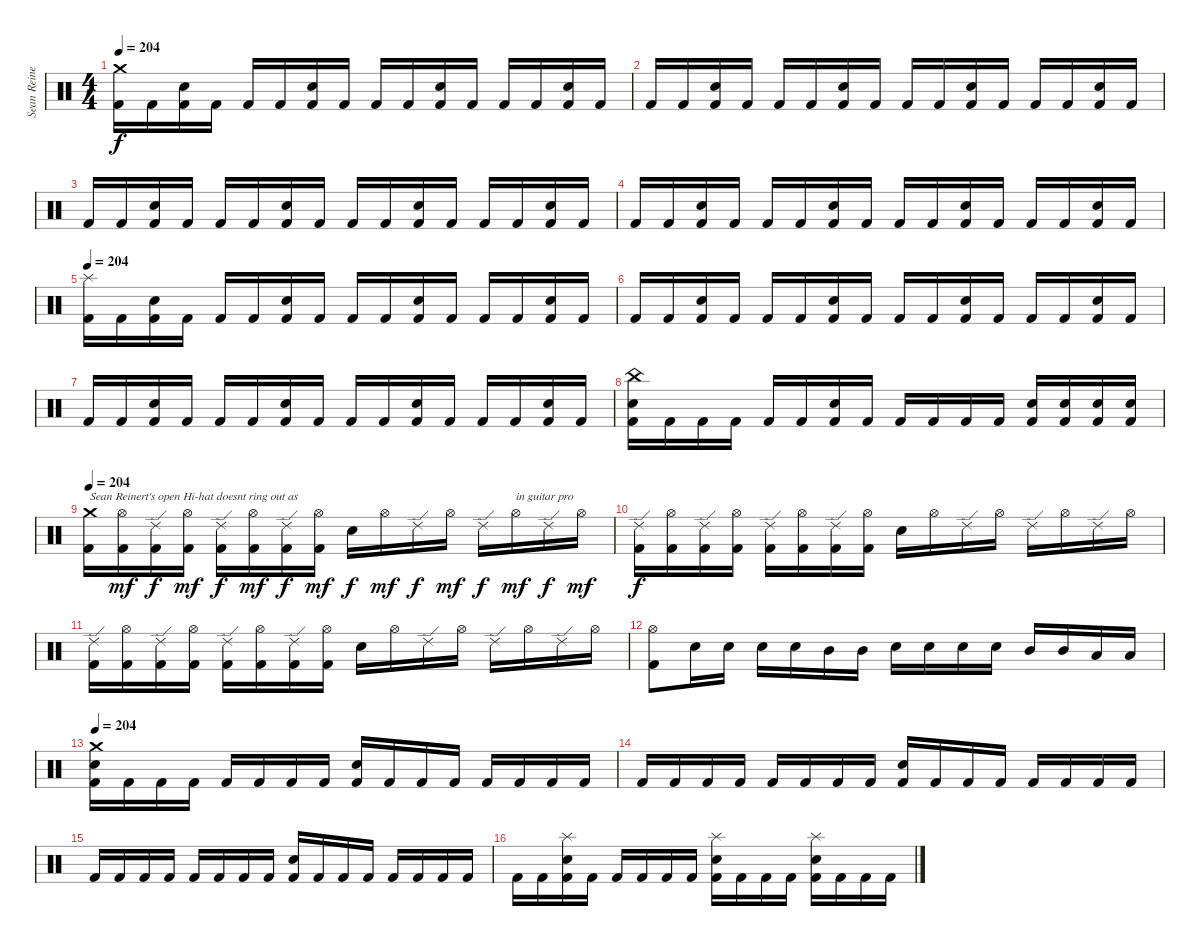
\track ("Sean Reinert" "Sean Reine") {instrument percussion}
\staff {score}
\articulation defaults
\ts (4 4)
\tempo 204
\clef neutral
\ks c
("Crash medium (hit)" "Kick (hit) 2").16{dy f} "Kick (hit) 2".16 ("Snare (hit) 2" "Kick (hit) 2").16 "Kick (hit) 2".16 "Kick (hit) 2".16 "Kick (hit) 2".16 ("Snare (hit) 2" "Kick (hit) 2").16 "Kick (hit) 2".16 "Kick (hit) 2".16 "Kick (hit) 2".16 ("Snare (hit) 2" "Kick (hit) 2").16 "Kick (hit) 2".16 "Kick (hit) 2".16 "Kick (hit) 2".16 ("Snare (hit) 2" "Kick (hit) 2").16 "Kick (hit) 2".16 |
"Kick (hit) 2".16 "Kick (hit) 2".16 ("Snare (hit) 2" "Kick (hit) 2").16 "Kick (hit) 2".16 "Kick (hit) 2".16 "Kick (hit) 2".16 ("Snare (hit) 2" "Kick (hit) 2").16 "Kick (hit) 2".16 "Kick (hit) 2".16 "Kick (hit) 2".16 ("Snare (hit) 2" "Kick (hit) 2").16 "Kick (hit) 2".16 "Kick (hit) 2".16 "Kick (hit) 2".16 ("Snare (hit) 2" "Kick (hit) 2").16 "Kick (hit) 2".16 |
"Kick (hit) 2".16 "Kick (hit) 2".16 ("Snare (hit) 2" "Kick (hit) 2").16 "Kick (hit) 2".16 "Kick (hit) 2".16 "Kick (hit) 2".16 ("Snare (hit) 2" "Kick (hit) 2").16 "Kick (hit) 2".16 "Kick (hit) 2".16 "Kick (hit) 2".16 ("Snare (hit) 2" "Kick (hit) 2").16 "Kick (hit) 2".16 "Kick (hit) 2".16 "Kick (hit) 2".16 ("Snare (hit) 2" "Kick (hit) 2").16 "Kick (hit) 2".16 |
"Kick (hit) 2".16 "Kick (hit) 2".16 ("Snare (hit) 2" "Kick (hit) 2").16 "Kick (hit) 2".16 "Kick (hit) 2".16 "Kick (hit) 2".16 ("Snare (hit) 2" "Kick (hit) 2").16 "Kick (hit) 2".16 "Kick (hit) 2".16 "Kick (hit) 2".16 ("Snare (hit) 2" "Kick (hit) 2").16 "Kick (hit) 2".16 "Kick (hit) 2".16 "Kick (hit) 2".16 ("Snare (hit) 2" "Kick (hit) 2").16 "Kick (hit) 2".16 |
\tempo 204
("Splash (hit)" "Kick (hit) 2").16 "Kick (hit) 2".16 ("Snare (hit) 2" "Kick (hit) 2").16 "Kick (hit) 2".16 "Kick (hit) 2".16 "Kick (hit) 2".16 ("Snare (hit) 2" "Kick (hit) 2").16 "Kick (hit) 2".16 "Kick (hit) 2".16 "Kick (hit) 2".16 ("Snare (hit) 2" "Kick (hit) 2").16 "Kick (hit) 2".16 "Kick (hit) 2".16 "Kick (hit) 2".16 ("Snare (hit) 2" "Kick (hit) 2").16 "Kick (hit) 2".16 |
"Kick (hit) 2".16 "Kick (hit) 2".16 ("Snare (hit) 2" "Kick (hit) 2").16 "Kick (hit) 2".16 "Kick (hit) 2".16 "Kick (hit) 2".16 ("Snare (hit) 2" "Kick (hit) 2").16 "Kick (hit) 2".16 "Kick (hit) 2".16 "Kick (hit) 2".16 ("Snare (hit) 2" "Kick (hit) 2").16 "Kick (hit) 2".16 "Kick (hit) 2".16 "Kick (hit) 2".16 ("Snare (hit) 2" "Kick (hit) 2").16 "Kick (hit) 2".16 |
"Kick (hit) 2".16 "Kick (hit) 2".16 ("Snare (hit) 2" "Kick (hit) 2").16 "Kick (hit) 2".16 "Kick (hit) 2".16 "Kick (hit) 2".16 ("Snare (hit) 2" "Kick (hit) 2").16 "Kick (hit) 2".16 "Kick (hit) 2".16 "Kick (hit) 2".16 ("Snare (hit) 2" "Kick (hit) 2").16 "Kick (hit) 2".16 "Kick (hit) 2".16 "Kick (hit) 2".16 ("Snare (hit) 2" "Kick (hit) 2").16 "Kick (hit) 2".16 |
("China (hit)" "Snare (hit) 2" "Kick (hit) 2").16 "Kick (hit) 2".16 "Kick (hit) 2".16 "Kick (hit) 2".16 "Kick (hit) 2".16 "Kick (hit) 2".16 ("Snare (hit) 2" "Kick (hit) 2").16 "Kick (hit) 2".16 "Kick (hit) 2".16 "Kick (hit) 2".16 "Kick (hit) 2".16 "Kick (hit) 2".16 ("Snare (hit) 2" "Kick (hit) 2").16 ("Snare (hit) 2" "Kick (hit) 2").16 ("Snare (hit) 2" "Kick (hit) 2").16 ("Snare (hit) 2" "Kick (hit) 2").16 |
\tempo 204
("Crash medium (hit)" "Kick (hit) 2").16{txt "Sean Reinert's open Hi-hat doesnt ring out as  "} ("Hi-Hat (open)" "Kick (hit) 2").16{dy mf} ("Ride (edge) 2" "Kick (hit) 2").16{dy f} ("Hi-Hat (open)" "Kick (hit) 2").16{dy mf} ("Ride (edge) 2" "Kick (hit) 2").16{dy f} ("Hi-Hat (open)" "Kick (hit) 2").16{dy mf} ("Ride (edge) 2" "Kick (hit) 2").16{dy f} ("Hi-Hat (open)" "Kick (hit) 2").16{dy mf} "Snare (hit) 2".16{dy f} "Hi-Hat (open)".16{dy mf} "Ride (edge) 2".16{dy f} "Hi-Hat (open)".16{dy mf} "Ride (edge) 2".16{dy f} "Hi-Hat (open)".16{txt "in guitar pro" dy mf} "Ride (edge) 2".16{dy f} "Hi-Hat (open)".16{dy mf} |
("Ride (edge) 2" "Kick (hit) 2").16{dy f} ("Hi-Hat (open)" "Kick (hit) 2").16 ("Ride (edge) 2" "Kick (hit) 2").16 ("Hi-Hat (open)" "Kick (hit) 2").16 ("Ride (edge) 2" "Kick (hit) 2").16 ("Hi-Hat (open)" "Kick (hit) 2").16 ("Ride (edge) 2" "Kick (hit) 2").16 ("Hi-Hat (open)" "Kick (hit) 2").16 "Snare (hit) 2".16 "Hi-Hat (open)".16 "Ride (edge) 2".16 "Hi-Hat (open)".16 "Ride (edge) 2".16 "Hi-Hat (open)".16 "Ride (edge) 2".16 "Hi-Hat (open)".16 |
("Ride (edge) 2" "Kick (hit) 2").16 ("Hi-Hat (open)" "Kick (hit) 2").16 ("Ride (edge) 2" "Kick (hit) 2").16 ("Hi-Hat (open)" "Kick (hit) 2").16 ("Ride (edge) 2" "Kick (hit) 2").16 ("Hi-Hat (open)" "Kick (hit) 2").16 ("Ride (edge) 2" "Kick (hit) 2").16 ("Hi-Hat (open)" "Kick (hit) 2").16 "Snare (hit) 2".16 "Hi-Hat (open)".16 "Ride (edge) 2".16 "Hi-Hat (open)".16 "Ride (edge) 2".16 "Hi-Hat (open)".16 "Ride (edge) 2".16 "Hi-Hat (open)".16 |
("Hi-Hat (open)" "Kick (hit) 2").8 "Snare (hit) 2".16 "Snare (hit) 2".16 "Snare (hit) 2".16 "Snare (hit) 2".16 "Mid Tom (hit)".16 "Mid Tom (hit)".16 "Snare (hit) 2".16 "Snare (hit) 2".16 "Snare (hit) 2".16 "Snare (hit) 2".16 "Mid Tom (hit)".16 "Mid Tom (hit)".16 "Low Tom (hit)".16 "Low Tom (hit)".16 |
\tempo 204
("Crash medium (hit)" "Snare (hit) 2" "Kick (hit) 2").16 "Kick (hit) 2".16 "Kick (hit) 2".16 "Kick (hit) 2".16 "Kick (hit) 2".16 "Kick (hit) 2".16 "Kick (hit) 2".16 "Kick (hit) 2".16 ("Snare (hit) 2" "Kick (hit) 2").16 "Kick (hit) 2".16 "Kick (hit) 2".16 "Kick (hit) 2".16 "Kick (hit) 2".16 "Kick (hit) 2".16 "Kick (hit) 2".16 "Kick (hit) 2".16 |
"Kick (hit) 2".16 "Kick (hit) 2".16 "Kick (hit) 2".16 "Kick (hit) 2".16 "Kick (hit) 2".16 "Kick (hit) 2".16 "Kick (hit) 2".16 "Kick (hit) 2".16 ("Snare (hit) 2" "Kick (hit) 2").16 "Kick (hit) 2".16 "Kick (hit) 2".16 "Kick (hit) 2".16 "Kick (hit) 2".16 "Kick (hit) 2".16 "Kick (hit) 2".16 "Kick (hit) 2".16 |
"Kick (hit) 2".16 "Kick (hit) 2".16 "Kick (hit) 2".16 "Kick (hit) 2".16 "Kick (hit) 2".16 "Kick (hit) 2".16 "Kick (hit) 2".16 "Kick (hit) 2".16 ("Snare (hit) 2" "Kick (hit) 2").16 "Kick (hit) 2".16 "Kick (hit) 2".16 "Kick (hit) 2".16 "Kick (hit) 2".16 "Kick (hit) 2".16 "Kick (hit) 2".16 "Kick (hit) 2".16 |
"Kick (hit) 2".16 "Kick (hit) 2".16 ("Splash (hit)" "Snare (hit) 2" "Kick (hit) 2").16 "Kick (hit) 2".16 "Kick (hit) 2".16 "Kick (hit) 2".16 "Kick (hit) 2".16 "Kick (hit) 2".16 ("Splash (hit)" "Snare (hit) 2" "Kick (hit) 2").16 "Kick (hit) 2".16 "Kick (hit) 2".16 "Kick (hit) 2".16 ("Splash (hit)" "Snare (hit) 2" "Kick (hit) 2").16 "Kick (hit) 2".16 "Kick (hit) 2".16 "Kick (hit) 2".16
